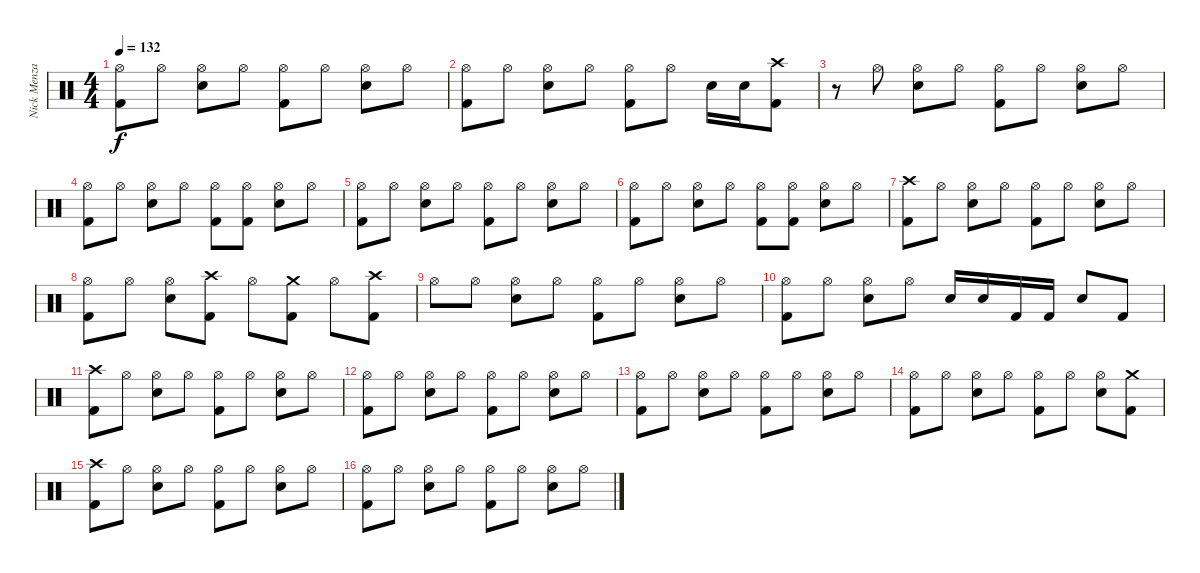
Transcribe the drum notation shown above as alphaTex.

\track ("Nick Menza (Drums)" "Nick Menza") {instrument percussion}
\staff {score}
\articulation defaults
\ts (4 4)
\tempo 132
\clef neutral
\ks c
("Hi-Hat (open)" "Kick (hit) 2").8{dy f} "Hi-Hat (open)".8 ("Hi-Hat (open)" "Snare (hit) 2").8 "Hi-Hat (open)".8 ("Hi-Hat (open)" "Kick (hit) 2").8 "Hi-Hat (open)".8 ("Hi-Hat (open)" "Snare (hit) 2").8 "Hi-Hat (open)".8 |
("Hi-Hat (open)" "Kick (hit) 2").8 "Hi-Hat (open)".8 ("Hi-Hat (open)" "Snare (hit) 2").8 "Hi-Hat (open)".8 ("Hi-Hat (open)" "Kick (hit) 2").8 "Hi-Hat (open)".8 "Snare (hit) 2".16 "Snare (hit) 2".16 ("Crash high (hit)" "Kick (hit) 2").8 |
r.8 "Hi-Hat (open)".8 ("Hi-Hat (open)" "Snare (hit) 2").8 "Hi-Hat (open)".8 ("Hi-Hat (open)" "Kick (hit) 2").8 "Hi-Hat (open)".8 ("Hi-Hat (open)" "Snare (hit) 2").8 "Hi-Hat (open)".8 |
("Hi-Hat (open)" "Kick (hit) 2").8 "Hi-Hat (open)".8 ("Hi-Hat (open)" "Snare (hit) 2").8 "Hi-Hat (open)".8 ("Hi-Hat (open)" "Kick (hit) 2").8 ("Hi-Hat (open)" "Kick (hit) 2").8 ("Hi-Hat (open)" "Snare (hit) 2").8 "Hi-Hat (open)".8 |
("Hi-Hat (open)" "Kick (hit) 2").8 "Hi-Hat (open)".8 ("Hi-Hat (open)" "Snare (hit) 2").8 "Hi-Hat (open)".8 ("Hi-Hat (open)" "Kick (hit) 2").8 "Hi-Hat (open)".8 ("Hi-Hat (open)" "Snare (hit) 2").8 "Hi-Hat (open)".8 |
("Hi-Hat (open)" "Kick (hit) 2").8 "Hi-Hat (open)".8 ("Hi-Hat (open)" "Snare (hit) 2").8 "Hi-Hat (open)".8 ("Hi-Hat (open)" "Kick (hit) 2").8 ("Hi-Hat (open)" "Kick (hit) 2").8 ("Hi-Hat (open)" "Snare (hit) 2").8 "Hi-Hat (open)".8 |
("Crash high (hit)" "Kick (hit) 2").8 "Hi-Hat (open)".8 ("Hi-Hat (open)" "Snare (hit) 2").8 "Hi-Hat (open)".8 ("Hi-Hat (open)" "Kick (hit) 2").8 "Hi-Hat (open)".8 ("Hi-Hat (open)" "Snare (hit) 2").8 "Hi-Hat (open)".8 |
("Hi-Hat (open)" "Kick (hit) 2").8 "Hi-Hat (open)".8 ("Hi-Hat (open)" "Snare (hit) 2").8 ("Crash high (hit)" "Kick (hit) 2").8 "Hi-Hat (open)".8 ("Crash medium (hit)" "Kick (hit) 2").8 "Hi-Hat (open)".8 ("Crash high (hit)" "Kick (hit) 2").8 |
"Hi-Hat (open)".8 "Hi-Hat (open)".8 ("Hi-Hat (open)" "Snare (hit) 2").8 "Hi-Hat (open)".8 ("Hi-Hat (open)" "Kick (hit) 2").8 "Hi-Hat (open)".8 ("Hi-Hat (open)" "Snare (hit) 2").8 "Hi-Hat (open)".8 |
("Hi-Hat (open)" "Kick (hit) 2").8 "Hi-Hat (open)".8 ("Hi-Hat (open)" "Snare (hit) 2").8 "Hi-Hat (open)".8 "Snare (hit) 2".16 "Snare (hit) 2".16 "Kick (hit) 2".16 "Kick (hit) 2".16 "Snare (hit) 2".8 "Kick (hit) 2".8 |
("Crash high (hit)" "Kick (hit) 2").8 "Hi-Hat (open)".8 ("Hi-Hat (open)" "Snare (hit) 2").8 "Hi-Hat (open)".8 ("Hi-Hat (open)" "Kick (hit) 2").8 "Hi-Hat (open)".8 ("Hi-Hat (open)" "Snare (hit) 2").8 "Hi-Hat (open)".8 |
("Hi-Hat (open)" "Kick (hit) 2").8 "Hi-Hat (open)".8 ("Hi-Hat (open)" "Snare (hit) 2").8 "Hi-Hat (open)".8 ("Hi-Hat (open)" "Kick (hit) 2").8 "Hi-Hat (open)".8 ("Hi-Hat (open)" "Snare (hit) 2").8 "Hi-Hat (open)".8 |
("Hi-Hat (open)" "Kick (hit) 2").8 "Hi-Hat (open)".8 ("Hi-Hat (open)" "Snare (hit) 2").8 "Hi-Hat (open)".8 ("Hi-Hat (open)" "Kick (hit) 2").8 "Hi-Hat (open)".8 ("Hi-Hat (open)" "Snare (hit) 2").8 "Hi-Hat (open)".8 |
("Hi-Hat (open)" "Kick (hit) 2").8 "Hi-Hat (open)".8 ("Hi-Hat (open)" "Snare (hit) 2").8 "Hi-Hat (open)".8 ("Hi-Hat (open)" "Kick (hit) 2").8 "Hi-Hat (open)".8 ("Hi-Hat (open)" "Snare (hit) 2").8 ("Crash medium (hit)" "Kick (hit) 2").8 |
("Crash high (hit)" "Kick (hit) 2").8 "Hi-Hat (open)".8 ("Hi-Hat (open)" "Snare (hit) 2").8 "Hi-Hat (open)".8 ("Hi-Hat (open)" "Kick (hit) 2").8 "Hi-Hat (open)".8 ("Hi-Hat (open)" "Snare (hit) 2").8 "Hi-Hat (open)".8 |
("Hi-Hat (open)" "Kick (hit) 2").8 "Hi-Hat (open)".8 ("Hi-Hat (open)" "Snare (hit) 2").8 "Hi-Hat (open)".8 ("Hi-Hat (open)" "Kick (hit) 2").8 "Hi-Hat (open)".8 ("Hi-Hat (open)" "Snare (hit) 2").8 "Hi-Hat (open)".8
